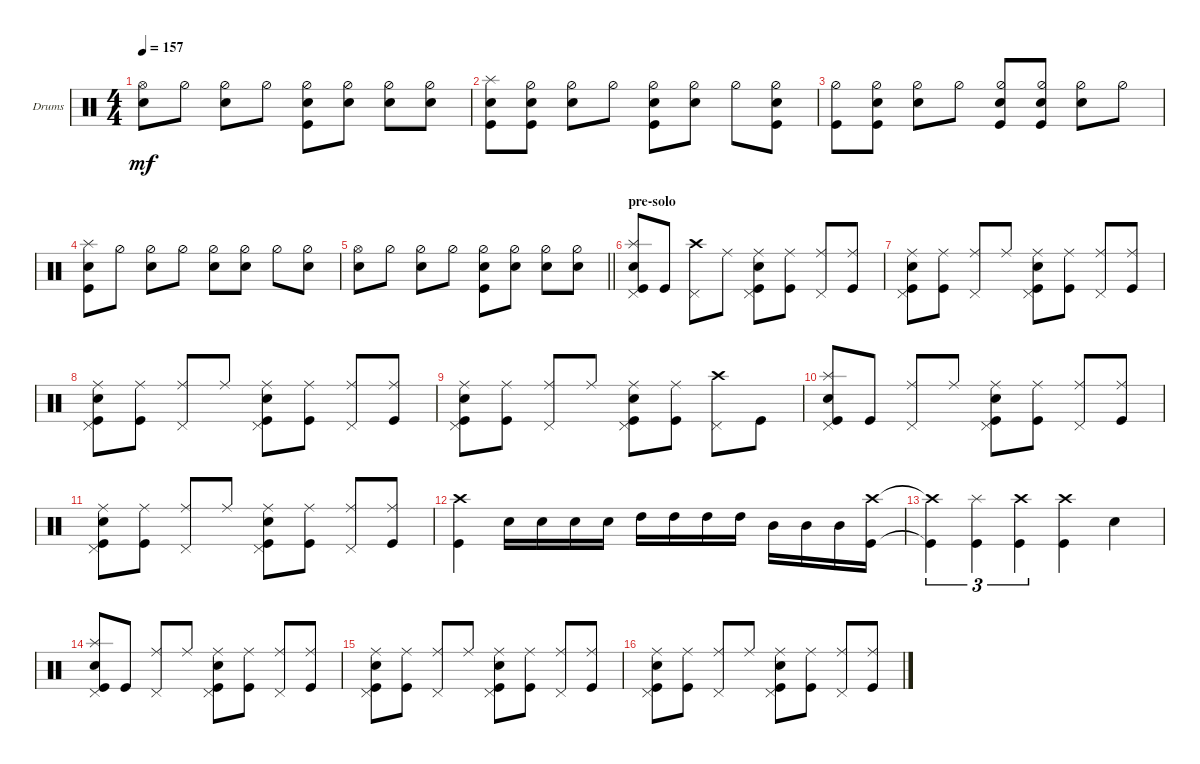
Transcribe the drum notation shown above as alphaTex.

\bracketExtendMode groupsimilarinstruments
\firstSystemTrackNameOrientation horizontal
\otherSystemsTrackNameOrientation horizontal
\track ("Drumkit" "Drums") {instrument percussion}
\staff {score}
\articulation defaults
\ts (4 4)
\tempo 157
\clef neutral
\scale
0.333333
\ks c
("Hi-Hat (open)" "Snare (hit) 2").8{dy mf} "Hi-Hat (half)".8 ("Hi-Hat (half)" "Snare (hit) 2").8 "Hi-Hat (half)".8 ("Kick (hit)" "Hi-Hat (half)" "Snare (hit) 2").8 ("Hi-Hat (half)" "Snare (hit) 2").8 ("Hi-Hat (half)" "Snare (hit) 2").8 ("Hi-Hat (half)" "Snare (hit) 2").8 |
\scale
0.333333 ("Kick (hit)" "Splash (hit)" "Snare (hit) 2").8 ("Kick (hit)" "Snare (hit) 2" "Hi-Hat (half)").8 ("Hi-Hat (half)" "Snare (hit) 2").8 "Hi-Hat (half)".8 ("Kick (hit)" "Snare (hit) 2" "Hi-Hat (half)").8 ("Hi-Hat (half)" "Snare (hit) 2").8 "Hi-Hat (half)".8 ("Snare (hit) 2" "Hi-Hat (half)" "Kick (hit)").8 |
\scale
0.333333 ("Kick (hit)" "Hi-Hat (half)").8 ("Snare (hit) 2" "Kick (hit)" "Hi-Hat (half)").8 ("Hi-Hat (half)" "Snare (hit) 2").8 "Hi-Hat (half)".8 ("Kick (hit)" "Snare (hit) 2" "Hi-Hat (half)").8 ("Snare (hit) 2" "Kick (hit)" "Hi-Hat (half)").8 ("Hi-Hat (half)" "Snare (hit) 2").8 "Hi-Hat (half)".8 |
\scale
0.333333 ("Snare (hit) 2" "Kick (hit)" "Splash (hit)").8 "Hi-Hat (half)".8 ("Snare (hit) 2" "Hi-Hat (half)").8 "Hi-Hat (half)".8 ("Hi-Hat (half)" "Snare (hit) 2").8 ("Hi-Hat (half)" "Snare (hit) 2").8 "Hi-Hat (half)".8 ("Hi-Hat (half)" "Snare (hit) 2").8 |
\scale
0.333333
\barLineRight lightlight
("Hi-Hat (open)" "Snare (hit) 2").8 "Hi-Hat (half)".8 ("Hi-Hat (half)" "Snare (hit) 2").8 "Hi-Hat (half)".8 ("Kick (hit)" "Hi-Hat (half)" "Snare (hit) 2").8 ("Hi-Hat (half)" "Snare (hit) 2").8 ("Hi-Hat (half)" "Snare (hit) 2").8 ("Hi-Hat (half)" "Snare (hit) 2").8 |
\section ("" "pre-solo")
\scale
0.333333 ("Kick (hit)" "Snare (hit) 2" "Pedal Hi-Hat (hit)" "Splash (hit)").8 "Kick (hit)".8 ("Pedal Hi-Hat (hit)" "Crash high (hit)").8 "Ride (middle)".8 ("Kick (hit)" "Ride (middle)" "Snare (hit) 2" "Pedal Hi-Hat (hit)").8 ("Kick (hit)" "Ride (middle)").8 ("Ride (middle)" "Pedal Hi-Hat (hit)").8 ("Kick (hit)" "Ride (middle)").8 |
\scale
0.333333 ("Kick (hit)" "Ride (middle)" "Snare (hit) 2" "Pedal Hi-Hat (hit)").8 ("Kick (hit)" "Ride (middle)").8 ("Ride (middle)" "Pedal Hi-Hat (hit)").8 "Ride (middle)".8 ("Kick (hit)" "Snare (hit) 2" "Ride (middle)" "Pedal Hi-Hat (hit)").8 ("Kick (hit)" "Ride (middle)").8 ("Pedal Hi-Hat (hit)" "Ride (middle)").8 ("Kick (hit)" "Ride (middle)").8 |
\scale
0.333333 ("Kick (hit)" "Ride (middle)" "Snare (hit) 2" "Pedal Hi-Hat (hit)").8 ("Kick (hit)" "Ride (middle)").8 ("Ride (middle)" "Pedal Hi-Hat (hit)").8 "Ride (middle)".8 ("Kick (hit)" "Snare (hit) 2" "Ride (middle)" "Pedal Hi-Hat (hit)").8 ("Kick (hit)" "Ride (middle)").8 ("Pedal Hi-Hat (hit)" "Ride (middle)").8 ("Kick (hit)" "Ride (middle)").8 |
\scale
0.333333 ("Kick (hit)" "Ride (middle)" "Snare (hit) 2" "Pedal Hi-Hat (hit)").8 ("Kick (hit)" "Ride (middle)").8 ("Ride (middle)" "Pedal Hi-Hat (hit)").8 "Ride (middle)".8 ("Kick (hit)" "Snare (hit) 2" "Ride (middle)" "Pedal Hi-Hat (hit)").8 ("Kick (hit)" "Ride (middle)").8 ("Pedal Hi-Hat (hit)" "Crash high (hit)").8 "Kick (hit)".8 |
\scale
0.333333 ("Kick (hit)" "Snare (hit) 2" "Pedal Hi-Hat (hit)" "Splash (hit)").8 "Kick (hit)".8 ("Ride (middle)" "Pedal Hi-Hat (hit)").8 "Ride (middle)".8 ("Kick (hit)" "Snare (hit) 2" "Ride (middle)" "Pedal Hi-Hat (hit)").8 ("Kick (hit)" "Ride (middle)").8 ("Pedal Hi-Hat (hit)" "Ride (middle)").8 ("Kick (hit)" "Ride (middle)").8 |
\scale
0.333333 ("Kick (hit)" "Ride (middle)" "Snare (hit) 2" "Pedal Hi-Hat (hit)").8 ("Kick (hit)" "Ride (middle)").8 ("Ride (middle)" "Pedal Hi-Hat (hit)").8 "Ride (middle)".8 ("Kick (hit)" "Snare (hit) 2" "Ride (middle)" "Pedal Hi-Hat (hit)").8 ("Kick (hit)" "Ride (middle)").8 ("Pedal Hi-Hat (hit)" "Ride (middle)").8 ("Kick (hit)" "Ride (middle)").8 |
\scale
0.333333 ("Kick (hit)" "Crash high (hit)").4 "Snare (hit) 2".16 "Snare (hit) 2".16 "Snare (hit) 2".16 "Snare (hit) 2".16 "High Tom (hit)".16 "High Tom (hit)".16 "High Tom (hit)".16 "High Tom (hit)".16 "Mid Tom (hit)".16 "Mid Tom (hit)".16 "Mid Tom (hit)".16 ("Kick (hit)" "Crash high (hit)").16 |
\scale
0.333333 ("Kick (hit)"{t} "Crash high (hit)"{t}).4{tu (3 2)} ("Kick (hit)" "Splash (hit)").4{tu (3 2)} ("Kick (hit)" "Crash high (hit)").4{tu (3 2)} ("Kick (hit)" "Crash high (hit)").4 "Snare (hit) 2".4 |
\scale
0.333333 ("Kick (hit)" "Snare (hit) 2" "Pedal Hi-Hat (hit)" "Splash (hit)").8 "Kick (hit)".8 ("Ride (middle)" "Pedal Hi-Hat (hit)").8 "Ride (middle)".8 ("Kick (hit)" "Snare (hit) 2" "Ride (middle)" "Pedal Hi-Hat (hit)").8 ("Kick (hit)" "Ride (middle)").8 ("Pedal Hi-Hat (hit)" "Ride (middle)").8 ("Kick (hit)" "Ride (middle)").8 |
\scale
0.333333 ("Kick (hit)" "Ride (middle)" "Snare (hit) 2" "Pedal Hi-Hat (hit)").8 ("Kick (hit)" "Ride (middle)").8 ("Ride (middle)" "Pedal Hi-Hat (hit)").8 "Ride (middle)".8 ("Kick (hit)" "Snare (hit) 2" "Ride (middle)" "Pedal Hi-Hat (hit)").8 ("Kick (hit)" "Ride (middle)").8 ("Pedal Hi-Hat (hit)" "Ride (middle)").8 ("Kick (hit)" "Ride (middle)").8 |
\scale
0.333333 ("Kick (hit)" "Ride (middle)" "Snare (hit) 2" "Pedal Hi-Hat (hit)").8 ("Kick (hit)" "Ride (middle)").8 ("Ride (middle)" "Pedal Hi-Hat (hit)").8 "Ride (middle)".8 ("Kick (hit)" "Snare (hit) 2" "Ride (middle)" "Pedal Hi-Hat (hit)").8 ("Kick (hit)" "Ride (middle)").8 ("Pedal Hi-Hat (hit)" "Ride (middle)").8 ("Kick (hit)" "Ride (middle)").8
